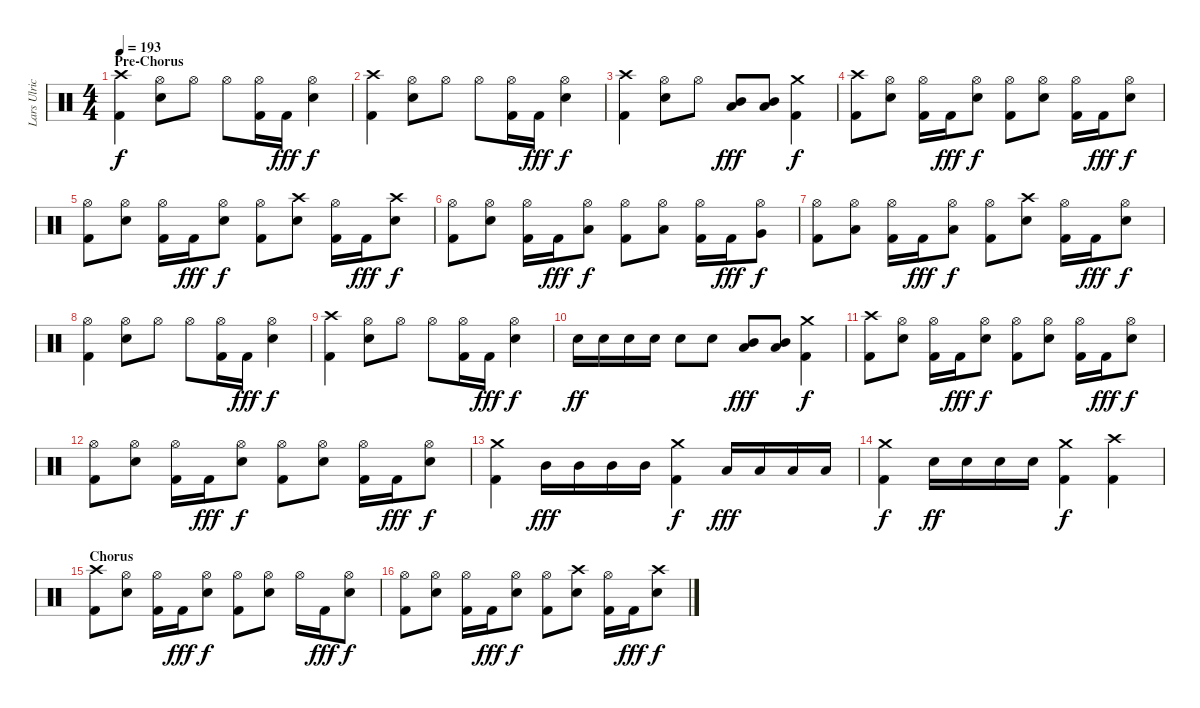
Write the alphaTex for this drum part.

\track ("Lars Ulrich - Drums" "Lars Ulric") {instrument percussion}
\staff {score}
\articulation defaults
\ts (4 4)
\section ("" "Pre-Chorus")
\tempo 193
\clef neutral
\ks c
("Crash high (hit)" "Kick (hit) 2").4{dy f} ("Hi-Hat (open)" "Snare (hit) 2").8 "Hi-Hat (open)".8 "Hi-Hat (open)".8 ("Hi-Hat (open)" "Kick (hit) 2").16 "Kick (hit) 2".16{dy fff} ("Hi-Hat (open)" "Snare (hit) 2").4{dy f} |
("Crash high (hit)" "Kick (hit) 2").4 ("Hi-Hat (open)" "Snare (hit) 2").8 "Hi-Hat (open)".8 "Hi-Hat (open)".8 ("Hi-Hat (open)" "Kick (hit) 2").16 "Kick (hit) 2".16{dy fff} ("Hi-Hat (open)" "Snare (hit) 2").4{dy f} |
("Crash high (hit)" "Kick (hit) 2").4 ("Hi-Hat (open)" "Snare (hit) 2").8 "Hi-Hat (open)".8 ("Mid Tom (hit)" "Low Tom (hit)").8{dy fff} ("Mid Tom (hit)" "Low Tom (hit)").8 ("Crash medium (hit)" "Kick (hit) 2").4{dy f} |
("Crash high (hit)" "Kick (hit) 2").8 ("Hi-Hat (open)" "Snare (hit) 2").8 ("Hi-Hat (open)" "Kick (hit) 2").16 "Kick (hit) 2".16{dy fff} ("Hi-Hat (open)" "Snare (hit) 2").8{dy f} ("Hi-Hat (open)" "Kick (hit) 2").8 ("Hi-Hat (open)" "Snare (hit) 2").8 ("Hi-Hat (open)" "Kick (hit) 2").16 "Kick (hit) 2".16{dy fff} ("Hi-Hat (open)" "Snare (hit) 2").8{dy f} |
("Hi-Hat (open)" "Kick (hit) 2").8 ("Hi-Hat (open)" "Snare (hit) 2").8 ("Hi-Hat (open)" "Kick (hit) 2").16 "Kick (hit) 2".16{dy fff} ("Hi-Hat (open)" "Snare (hit) 2").8{dy f} ("Hi-Hat (open)" "Kick (hit) 2").8 ("Crash high (hit)" "Snare (hit) 2").8 ("Hi-Hat (open)" "Kick (hit) 2").16 "Kick (hit) 2".16{dy fff} ("Crash high (hit)" "Snare (hit) 2").8{dy f} |
("Hi-Hat (open)" "Kick (hit) 2").8 ("Hi-Hat (open)" "Snare (hit) 2").8 ("Hi-Hat (open)" "Kick (hit) 2").16 "Kick (hit) 2".16{dy fff} ("Hi-Hat (open)" "Low Tom (hit)").8{dy f} ("Hi-Hat (open)" "Kick (hit) 2").8 ("Hi-Hat (open)" "Low Tom (hit)").8 ("Hi-Hat (open)" "Kick (hit) 2").16 "Kick (hit) 2".16{dy fff} ("Hi-Hat (open)" "Very Low Tom (hit)").8{dy f} |
("Hi-Hat (open)" "Kick (hit) 2").8 ("Hi-Hat (open)" "Low Floor Tom (hit)").8 ("Hi-Hat (open)" "Kick (hit) 2").16 "Kick (hit) 2".16{dy fff} ("Hi-Hat (open)" "Low Floor Tom (hit)").8{dy f} ("Hi-Hat (open)" "Kick (hit) 2").8 ("Crash high (hit)" "Snare (hit) 2").8 ("Hi-Hat (open)" "Kick (hit) 2").16 "Kick (hit) 2".16{dy fff} ("Hi-Hat (open)" "Snare (hit) 2").8{dy f} |
("Hi-Hat (open)" "Kick (hit) 2").4 ("Hi-Hat (open)" "Snare (hit) 2").8 "Hi-Hat (open)".8 "Hi-Hat (open)".8 ("Hi-Hat (open)" "Kick (hit) 2").16 "Kick (hit) 2".16{dy fff} ("Hi-Hat (open)" "Snare (hit) 2").4{dy f} |
("Crash high (hit)" "Kick (hit) 2").4 ("Hi-Hat (open)" "Snare (hit) 2").8 "Hi-Hat (open)".8 "Hi-Hat (open)".8 ("Hi-Hat (open)" "Kick (hit) 2").16 "Kick (hit) 2".16{dy fff} ("Hi-Hat (open)" "Snare (hit) 2").4{dy f} |
"Snare (hit) 2".16{dy ff} "Snare (hit) 2".16 "Snare (hit) 2".16 "Snare (hit) 2".16 "Snare (hit) 2".8 "Snare (hit) 2".8 ("Mid Tom (hit)" "Low Tom (hit)").8{dy fff} ("Mid Tom (hit)" "Low Tom (hit)").8 ("Crash medium (hit)" "Kick (hit) 2").4{dy f} |
("Crash high (hit)" "Kick (hit) 2").8 ("Hi-Hat (open)" "Snare (hit) 2").8 ("Hi-Hat (open)" "Kick (hit) 2").16 "Kick (hit) 2".16{dy fff} ("Hi-Hat (open)" "Snare (hit) 2").8{dy f} ("Hi-Hat (open)" "Kick (hit) 2").8 ("Hi-Hat (open)" "Snare (hit) 2").8 ("Hi-Hat (open)" "Kick (hit) 2").16 "Kick (hit) 2".16{dy fff} ("Hi-Hat (open)" "Snare (hit) 2").8{dy f} |
("Hi-Hat (open)" "Kick (hit) 2").8 ("Hi-Hat (open)" "Snare (hit) 2").8 ("Hi-Hat (open)" "Kick (hit) 2").16 "Kick (hit) 2".16{dy fff} ("Hi-Hat (open)" "Snare (hit) 2").8{dy f} ("Hi-Hat (open)" "Kick (hit) 2").8 ("Hi-Hat (open)" "Snare (hit) 2").8 ("Hi-Hat (open)" "Kick (hit) 2").16 "Kick (hit) 2".16{dy fff} ("Hi-Hat (open)" "Snare (hit) 2").8{dy f} |
("Crash medium (hit)" "Kick (hit) 2").4 "Mid Tom (hit)".16{dy fff} "Mid Tom (hit)".16 "Mid Tom (hit)".16 "Mid Tom (hit)".16 ("Crash medium (hit)" "Kick (hit) 2").4{dy f} "Low Tom (hit)".16{dy fff} "Low Tom (hit)".16 "Low Tom (hit)".16 "Low Tom (hit)".16 |
("Crash medium (hit)" "Kick (hit) 2").4{dy f} "Snare (hit) 2".16{dy ff} "Snare (hit) 2".16 "Snare (hit) 2".16 "Snare (hit) 2".16 ("Crash medium (hit)" "Kick (hit) 2").4{dy f} ("Crash high (hit)" "Kick (hit) 2").4 |
\section ("" "Chorus")
("Crash high (hit)" "Kick (hit) 2").8 ("Hi-Hat (open)" "Snare (hit) 2").8 ("Hi-Hat (open)" "Kick (hit) 2").16 "Kick (hit) 2".16{dy fff} ("Hi-Hat (open)" "Snare (hit) 2").8{dy f} ("Hi-Hat (open)" "Kick (hit) 2").8 ("Hi-Hat (open)" "Snare (hit) 2").8 "Hi-Hat (open)".16 "Kick (hit) 2".16{dy fff} ("Hi-Hat (open)" "Snare (hit) 2").8{dy f} |
("Hi-Hat (open)" "Kick (hit) 2").8 ("Hi-Hat (open)" "Snare (hit) 2").8 ("Hi-Hat (open)" "Kick (hit) 2").16 "Kick (hit) 2".16{dy fff} ("Hi-Hat (open)" "Snare (hit) 2").8{dy f} ("Hi-Hat (open)" "Kick (hit) 2").8 ("Crash high (hit)" "Snare (hit) 2").8 ("Hi-Hat (open)" "Kick (hit) 2").16 "Kick (hit) 2".16{dy fff} ("Crash high (hit)" "Snare (hit) 2").8{dy f}
